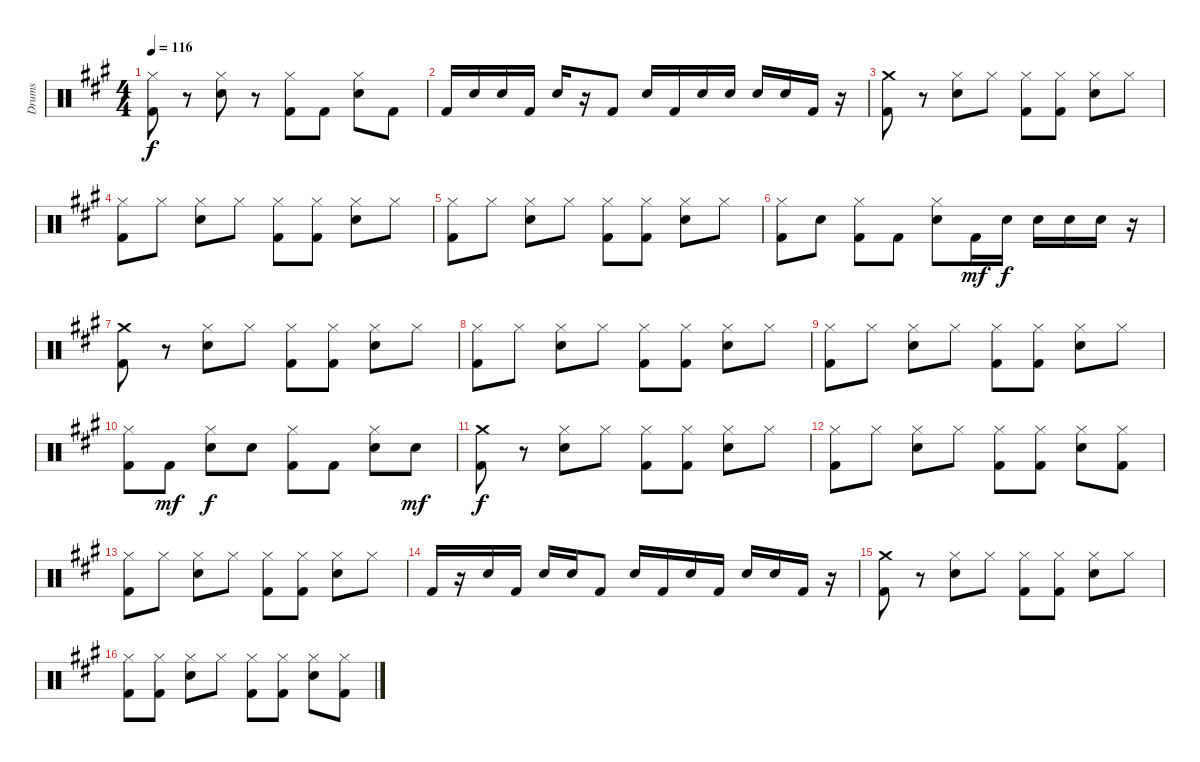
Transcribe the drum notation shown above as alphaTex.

\track ("Drums" "Drums") {instrument percussion}
\staff {score}
\articulation defaults
\ts (4 4)
\tempo 116
\clef neutral
\ks a
("Kick (hit) 2" "Hi-Hat (closed)").8{dy f} r.8 ("Snare (hit) 2" "Hi-Hat (closed)").8 r.8 ("Kick (hit) 2" "Hi-Hat (closed)").8 "Kick (hit) 2".8 ("Snare (hit) 2" "Hi-Hat (closed)").8 "Kick (hit) 2".8 |
"Kick (hit) 2".16 "Snare (hit) 2".16 "Snare (hit) 2".16 "Kick (hit) 2".16 "Snare (hit) 2".16 r.16 "Kick (hit) 2".8 "Snare (hit) 2".16 "Kick (hit) 2".16 "Snare (hit) 2".16 "Snare (hit) 2".16 "Snare (hit) 2".16 "Snare (hit) 2".16 "Kick (hit) 2".16 r.16 |
("Crash medium (hit)" "Kick (hit) 2").8 r.8 ("Snare (hit) 2" "Hi-Hat (closed)").8 "Hi-Hat (closed)".8 ("Kick (hit) 2" "Hi-Hat (closed)").8 ("Kick (hit) 2" "Hi-Hat (closed)").8 ("Snare (hit) 2" "Hi-Hat (closed)").8 "Hi-Hat (closed)".8 |
("Kick (hit) 2" "Hi-Hat (closed)").8 "Hi-Hat (closed)".8 ("Snare (hit) 2" "Hi-Hat (closed)").8 "Hi-Hat (closed)".8 ("Kick (hit) 2" "Hi-Hat (closed)").8 ("Kick (hit) 2" "Hi-Hat (closed)").8 ("Snare (hit) 2" "Hi-Hat (closed)").8 "Hi-Hat (closed)".8 |
("Kick (hit) 2" "Hi-Hat (closed)").8 "Hi-Hat (closed)".8 ("Snare (hit) 2" "Hi-Hat (closed)").8 "Hi-Hat (closed)".8 ("Kick (hit) 2" "Hi-Hat (closed)").8 ("Kick (hit) 2" "Hi-Hat (closed)").8 ("Snare (hit) 2" "Hi-Hat (closed)").8 "Hi-Hat (closed)".8 |
("Kick (hit) 2" "Hi-Hat (closed)").8 "Snare (hit) 2".8 ("Kick (hit) 2" "Hi-Hat (closed)").8 "Kick (hit) 2".8 ("Snare (hit) 2" "Hi-Hat (closed)").8 "Kick (hit) 2".16{dy mf} "Snare (hit) 2".16{dy f} "Snare (hit) 2".16 "Snare (hit) 2".16 "Snare (hit) 2".16 r.16 |
("Crash medium (hit)" "Kick (hit) 2").8 r.8 ("Snare (hit) 2" "Hi-Hat (closed)").8 "Hi-Hat (closed)".8 ("Kick (hit) 2" "Hi-Hat (closed)").8 ("Kick (hit) 2" "Hi-Hat (closed)").8 ("Snare (hit) 2" "Hi-Hat (closed)").8 "Hi-Hat (closed)".8 |
("Kick (hit) 2" "Hi-Hat (closed)").8 "Hi-Hat (closed)".8 ("Snare (hit) 2" "Hi-Hat (closed)").8 "Hi-Hat (closed)".8 ("Kick (hit) 2" "Hi-Hat (closed)").8 ("Kick (hit) 2" "Hi-Hat (closed)").8 ("Snare (hit) 2" "Hi-Hat (closed)").8 "Hi-Hat (closed)".8 |
("Kick (hit) 2" "Hi-Hat (closed)").8 "Hi-Hat (closed)".8 ("Snare (hit) 2" "Hi-Hat (closed)").8 "Hi-Hat (closed)".8 ("Kick (hit) 2" "Hi-Hat (closed)").8 ("Kick (hit) 2" "Hi-Hat (closed)").8 ("Snare (hit) 2" "Hi-Hat (closed)").8 "Hi-Hat (closed)".8 |
("Kick (hit) 2" "Hi-Hat (closed)").8 "Kick (hit) 2".8{dy mf} ("Snare (hit) 2" "Hi-Hat (closed)").8{dy f} "Snare (hit) 2".8 ("Kick (hit) 2" "Hi-Hat (closed)").8 "Kick (hit) 2".8 ("Snare (hit) 2" "Hi-Hat (closed)").8 "Snare (hit) 2".8{dy mf} |
("Crash medium (hit)" "Kick (hit) 2").8{dy f} r.8 ("Snare (hit) 2" "Hi-Hat (closed)").8 "Hi-Hat (closed)".8 ("Kick (hit) 2" "Hi-Hat (closed)").8 ("Kick (hit) 2" "Hi-Hat (closed)").8 ("Snare (hit) 2" "Hi-Hat (closed)").8 "Hi-Hat (closed)".8 |
("Kick (hit) 2" "Hi-Hat (closed)").8 "Hi-Hat (closed)".8 ("Snare (hit) 2" "Hi-Hat (closed)").8 "Hi-Hat (closed)".8 ("Kick (hit) 2" "Hi-Hat (closed)").8 ("Kick (hit) 2" "Hi-Hat (closed)").8 ("Snare (hit) 2" "Hi-Hat (closed)").8 ("Hi-Hat (closed)" "Kick (hit) 2").8 |
("Kick (hit) 2" "Hi-Hat (closed)").8 "Hi-Hat (closed)".8 ("Snare (hit) 2" "Hi-Hat (closed)").8 "Hi-Hat (closed)".8 ("Kick (hit) 2" "Hi-Hat (closed)").8 ("Kick (hit) 2" "Hi-Hat (closed)").8 ("Snare (hit) 2" "Hi-Hat (closed)").8 "Hi-Hat (closed)".8 |
"Kick (hit) 2".16 r.16 "Snare (hit) 2".16 "Kick (hit) 2".16 "Snare (hit) 2".16 "Snare (hit) 2".16 "Kick (hit) 2".8 "Snare (hit) 2".16 "Kick (hit) 2".16 "Snare (hit) 2".16 "Kick (hit) 2".16 "Snare (hit) 2".16 "Snare (hit) 2".16 "Kick (hit) 2".16 r.16 |
("Crash medium (hit)" "Kick (hit) 2").8 r.8 ("Snare (hit) 2" "Hi-Hat (closed)").8 "Hi-Hat (closed)".8 ("Kick (hit) 2" "Hi-Hat (closed)").8 ("Kick (hit) 2" "Hi-Hat (closed)").8 ("Snare (hit) 2" "Hi-Hat (closed)").8 "Hi-Hat (closed)".8 |
("Kick (hit) 2" "Hi-Hat (closed)").8 ("Hi-Hat (closed)" "Kick (hit) 2").8 ("Snare (hit) 2" "Hi-Hat (closed)").8 "Hi-Hat (closed)".8 ("Kick (hit) 2" "Hi-Hat (closed)").8 ("Kick (hit) 2" "Hi-Hat (closed)").8 ("Snare (hit) 2" "Hi-Hat (closed)").8 ("Hi-Hat (closed)" "Kick (hit) 2").8
